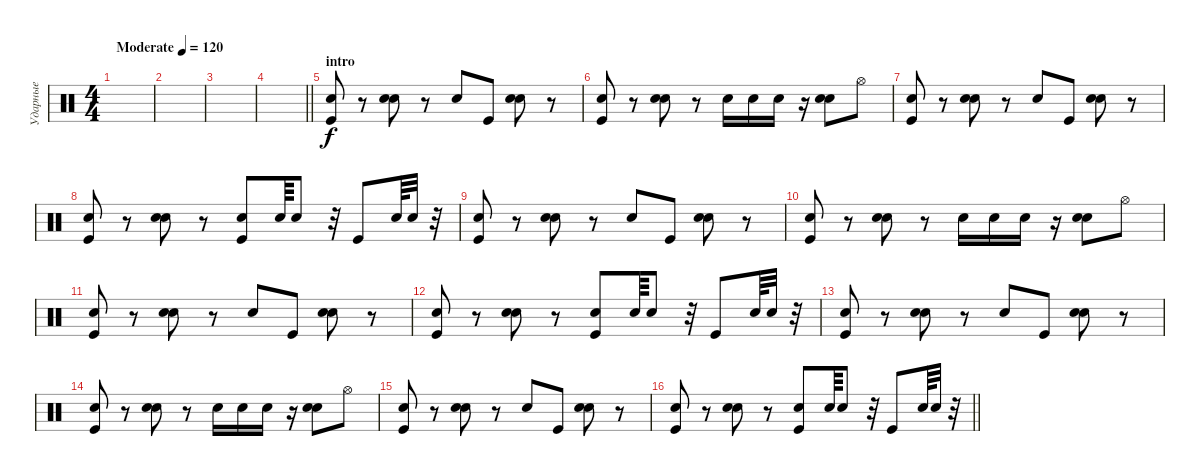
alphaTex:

\track ("Ударные" "Ударные") {instrument percussion}
\staff {score}
\articulation defaults
\ts (4 4)
\tempo (120 "Moderate")
\clef neutral
\ks c
|
|
|
\barLineRight lightlight
|
\section ("" "intro")
("Snare (hit) 2" "Kick (hit)").8 r.8 ("Electric Snare (hit)" "Snare (hit) 2").8 r.8 "Snare (hit) 2".8 "Kick (hit)".8 ("Electric Snare (hit)" "Snare (hit) 2").8 r.8 |
("Snare (hit) 2" "Kick (hit)").8 r.8 ("Electric Snare (hit)" "Snare (hit) 2").8 r.8 "Snare (hit) 2".16 "Snare (hit) 2".16 "Snare (hit) 2".16 r.16 ("Electric Snare (hit)" "Snare (hit) 2").8 "Hi-Hat (open)".8 |
("Snare (hit) 2" "Kick (hit)").8 r.8 ("Electric Snare (hit)" "Snare (hit) 2").8 r.8 "Snare (hit) 2".8 "Kick (hit)".8 ("Electric Snare (hit)" "Snare (hit) 2").8 r.8 |
("Snare (hit) 2" "Kick (hit)").8 r.8 ("Electric Snare (hit)" "Snare (hit) 2").8 r.8 ("Snare (hit) 2" "Kick (hit)").8 "Electric Snare (hit)".64 "Electric Snare (hit)".8 r.32 "Kick (hit)".8 "Electric Snare (hit)".64 "Electric Snare (hit)".32 r.32 |
("Snare (hit) 2" "Kick (hit)").8 r.8 ("Electric Snare (hit)" "Snare (hit) 2").8 r.8 "Snare (hit) 2".8 "Kick (hit)".8 ("Electric Snare (hit)" "Snare (hit) 2").8 r.8 |
("Snare (hit) 2" "Kick (hit)").8 r.8 ("Electric Snare (hit)" "Snare (hit) 2").8 r.8 "Snare (hit) 2".16 "Snare (hit) 2".16 "Snare (hit) 2".16 r.16 ("Electric Snare (hit)" "Snare (hit) 2").8 "Hi-Hat (open)".8 |
("Snare (hit) 2" "Kick (hit)").8 r.8 ("Electric Snare (hit)" "Snare (hit) 2").8 r.8 "Snare (hit) 2".8 "Kick (hit)".8 ("Electric Snare (hit)" "Snare (hit) 2").8 r.8 |
("Snare (hit) 2" "Kick (hit)").8 r.8 ("Electric Snare (hit)" "Snare (hit) 2").8 r.8 ("Snare (hit) 2" "Kick (hit)").8 "Electric Snare (hit)".64 "Electric Snare (hit)".8 r.32 "Kick (hit)".8 "Electric Snare (hit)".64 "Electric Snare (hit)".32 r.32 |
("Snare (hit) 2" "Kick (hit)").8 r.8 ("Electric Snare (hit)" "Snare (hit) 2").8 r.8 "Snare (hit) 2".8 "Kick (hit)".8 ("Electric Snare (hit)" "Snare (hit) 2").8 r.8 |
("Snare (hit) 2" "Kick (hit)").8 r.8 ("Electric Snare (hit)" "Snare (hit) 2").8 r.8 "Snare (hit) 2".16 "Snare (hit) 2".16 "Snare (hit) 2".16 r.16 ("Electric Snare (hit)" "Snare (hit) 2").8 "Hi-Hat (open)".8 |
("Snare (hit) 2" "Kick (hit)").8 r.8 ("Electric Snare (hit)" "Snare (hit) 2").8 r.8 "Snare (hit) 2".8 "Kick (hit)".8 ("Electric Snare (hit)" "Snare (hit) 2").8 r.8 |
\barLineRight lightlight
("Snare (hit) 2" "Kick (hit)").8 r.8 ("Electric Snare (hit)" "Snare (hit) 2").8 r.8 ("Snare (hit) 2" "Kick (hit)").8 "Electric Snare (hit)".64 "Electric Snare (hit)".8 r.32 "Kick (hit)".8 "Electric Snare (hit)".64 "Electric Snare (hit)".32 r.32
